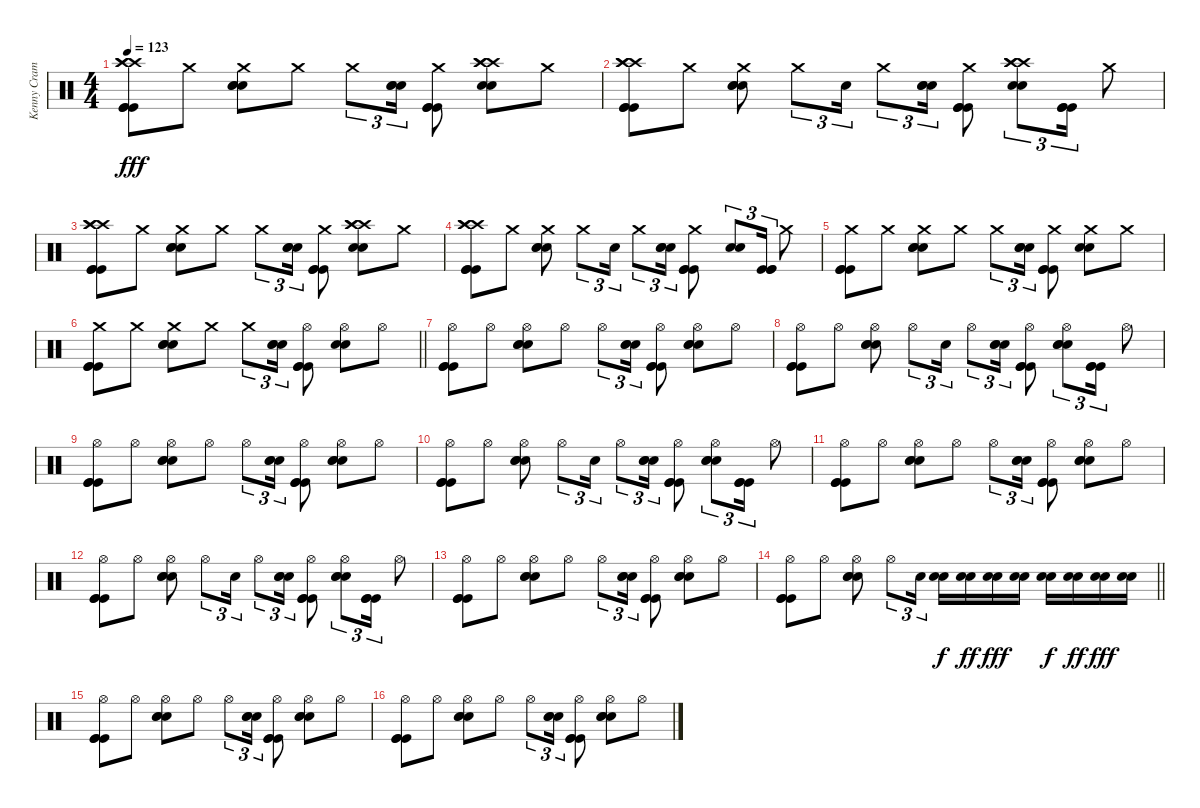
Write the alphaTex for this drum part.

\track ("Kenny Cramme - Drums" "Kenny Cram") {instrument percussion}
\staff {score}
\articulation defaults
\ts (4 4)
\tempo 123
\clef neutral
\ks c
("Crash high (hit)" "Crash high (hit)" "Crash high (hit)" "Kick (hit)" "Kick (hit)" "Kick (hit)").8{dy fff} "Crash medium (hit)".8 ("Crash medium (hit)" "Snare (hit) 2" "Snare (hit) 2" "Snare (hit) 2").8 "Crash medium (hit)".8 "Crash medium (hit)".8{tu (3 2)} ("Snare (hit) 2" "Snare (hit) 2" "Snare (hit) 2").16{tu (3 2)} ("Crash medium (hit)" "Kick (hit)" "Kick (hit)" "Kick (hit)").8 ("Crash high (hit)" "Crash high (hit)" "Crash high (hit)" "Snare (hit) 2" "Snare (hit) 2").8 "Crash medium (hit)".8 |
("Crash high (hit)" "Crash high (hit)" "Crash high (hit)" "Kick (hit)" "Kick (hit)" "Kick (hit)").8 "Crash medium (hit)".8 ("Crash medium (hit)" "Snare (hit) 2" "Snare (hit) 2" "Snare (hit) 2").8 "Crash medium (hit)".8{tu (3 2)} "Snare (hit) 2".16{tu (3 2)} "Crash medium (hit)".8{tu (3 2)} ("Snare (hit) 2" "Snare (hit) 2" "Snare (hit) 2").16{tu (3 2)} ("Crash medium (hit)" "Kick (hit)" "Kick (hit)" "Kick (hit)").8 ("Crash high (hit)" "Crash high (hit)" "Crash high (hit)" "Snare (hit) 2" "Snare (hit) 2").8{tu (3 2)} ("Kick (hit)" "Kick (hit)" "Kick (hit)").16{tu (3 2)} "Crash medium (hit)".8 |
("Crash high (hit)" "Crash high (hit)" "Crash high (hit)" "Kick (hit)" "Kick (hit)" "Kick (hit)").8 "Crash medium (hit)".8 ("Crash medium (hit)" "Snare (hit) 2" "Snare (hit) 2" "Snare (hit) 2").8 "Crash medium (hit)".8 "Crash medium (hit)".8{tu (3 2)} ("Snare (hit) 2" "Snare (hit) 2" "Snare (hit) 2").16{tu (3 2)} ("Crash medium (hit)" "Kick (hit)" "Kick (hit)" "Kick (hit)").8 ("Crash high (hit)" "Crash high (hit)" "Crash high (hit)" "Snare (hit) 2" "Snare (hit) 2").8 "Crash medium (hit)".8 |
("Crash high (hit)" "Crash high (hit)" "Crash high (hit)" "Kick (hit)" "Kick (hit)" "Kick (hit)").8 "Crash medium (hit)".8 ("Crash medium (hit)" "Snare (hit) 2" "Snare (hit) 2" "Snare (hit) 2").8 "Crash medium (hit)".8{tu (3 2)} "Snare (hit) 2".16{tu (3 2)} "Crash medium (hit)".8{tu (3 2)} ("Snare (hit) 2" "Snare (hit) 2" "Snare (hit) 2").16{tu (3 2)} ("Crash medium (hit)" "Kick (hit)" "Kick (hit)" "Kick (hit)").8 ("Snare (hit) 2" "Snare (hit) 2").8{tu (3 2)} ("Kick (hit)" "Kick (hit)" "Kick (hit)").16{tu (3 2)} "Crash medium (hit)".8 |
("Crash medium (hit)" "Kick (hit)" "Kick (hit)" "Kick (hit)").8 "Crash medium (hit)".8 ("Crash medium (hit)" "Snare (hit) 2" "Snare (hit) 2" "Snare (hit) 2").8 "Crash medium (hit)".8 "Crash medium (hit)".8{tu (3 2)} ("Snare (hit) 2" "Snare (hit) 2" "Snare (hit) 2").16{tu (3 2)} ("Crash medium (hit)" "Kick (hit)" "Kick (hit)" "Kick (hit)").8 ("Crash medium (hit)" "Snare (hit) 2" "Snare (hit) 2").8 "Crash medium (hit)".8 |
\barLineRight lightlight
("Crash medium (hit)" "Kick (hit)" "Kick (hit)" "Kick (hit)").8 "Crash medium (hit)".8 ("Crash medium (hit)" "Snare (hit) 2" "Snare (hit) 2" "Snare (hit) 2").8 "Crash medium (hit)".8 "Crash medium (hit)".8{tu (3 2)} ("Snare (hit) 2" "Snare (hit) 2" "Snare (hit) 2").16{tu (3 2)} ("Hi-Hat (open)" "Kick (hit)" "Kick (hit)" "Kick (hit)").8 ("Hi-Hat (open)" "Snare (hit) 2" "Snare (hit) 2").8 "Hi-Hat (open)".8 |
("Hi-Hat (open)" "Kick (hit)" "Kick (hit)" "Kick (hit)").8 "Hi-Hat (open)".8 ("Hi-Hat (open)" "Snare (hit) 2" "Snare (hit) 2" "Snare (hit) 2").8 "Hi-Hat (open)".8 "Hi-Hat (open)".8{tu (3 2)} ("Snare (hit) 2" "Snare (hit) 2" "Snare (hit) 2").16{tu (3 2)} ("Hi-Hat (open)" "Kick (hit)" "Kick (hit)" "Kick (hit)").8 ("Hi-Hat (open)" "Snare (hit) 2" "Snare (hit) 2" "Snare (hit) 2").8 "Hi-Hat (open)".8 |
("Hi-Hat (open)" "Kick (hit)" "Kick (hit)" "Kick (hit)").8 "Hi-Hat (open)".8 ("Hi-Hat (open)" "Snare (hit) 2" "Snare (hit) 2" "Snare (hit) 2").8 "Hi-Hat (open)".8{tu (3 2)} "Snare (hit) 2".16{tu (3 2)} "Hi-Hat (open)".8{tu (3 2)} ("Snare (hit) 2" "Snare (hit) 2" "Snare (hit) 2").16{tu (3 2)} ("Hi-Hat (open)" "Kick (hit)" "Kick (hit)" "Kick (hit)").8 ("Hi-Hat (open)" "Snare (hit) 2" "Snare (hit) 2" "Snare (hit) 2").8{tu (3 2)} ("Kick (hit)" "Kick (hit)" "Kick (hit)").16{tu (3 2)} "Hi-Hat (open)".8 |
("Hi-Hat (open)" "Kick (hit)" "Kick (hit)" "Kick (hit)").8 "Hi-Hat (open)".8 ("Hi-Hat (open)" "Snare (hit) 2" "Snare (hit) 2" "Snare (hit) 2").8 "Hi-Hat (open)".8 "Hi-Hat (open)".8{tu (3 2)} ("Snare (hit) 2" "Snare (hit) 2" "Snare (hit) 2").16{tu (3 2)} ("Hi-Hat (open)" "Kick (hit)" "Kick (hit)" "Kick (hit)").8 ("Hi-Hat (open)" "Snare (hit) 2" "Snare (hit) 2" "Snare (hit) 2").8 "Hi-Hat (open)".8 |
("Hi-Hat (open)" "Kick (hit)" "Kick (hit)" "Kick (hit)").8 "Hi-Hat (open)".8 ("Hi-Hat (open)" "Snare (hit) 2" "Snare (hit) 2" "Snare (hit) 2").8 "Hi-Hat (open)".8{tu (3 2)} "Snare (hit) 2".16{tu (3 2)} "Hi-Hat (open)".8{tu (3 2)} ("Snare (hit) 2" "Snare (hit) 2" "Snare (hit) 2").16{tu (3 2)} ("Hi-Hat (open)" "Kick (hit)" "Kick (hit)" "Kick (hit)").8 ("Hi-Hat (open)" "Snare (hit) 2" "Snare (hit) 2" "Snare (hit) 2").8{tu (3 2)} ("Kick (hit)" "Kick (hit)" "Kick (hit)").16{tu (3 2)} "Hi-Hat (open)".8 |
("Hi-Hat (open)" "Kick (hit)" "Kick (hit)" "Kick (hit)").8 "Hi-Hat (open)".8 ("Hi-Hat (open)" "Snare (hit) 2" "Snare (hit) 2" "Snare (hit) 2").8 "Hi-Hat (open)".8 "Hi-Hat (open)".8{tu (3 2)} ("Snare (hit) 2" "Snare (hit) 2" "Snare (hit) 2").16{tu (3 2)} ("Hi-Hat (open)" "Kick (hit)" "Kick (hit)" "Kick (hit)").8 ("Hi-Hat (open)" "Snare (hit) 2" "Snare (hit) 2" "Snare (hit) 2").8 "Hi-Hat (open)".8 |
("Hi-Hat (open)" "Kick (hit)" "Kick (hit)" "Kick (hit)").8 "Hi-Hat (open)".8 ("Hi-Hat (open)" "Snare (hit) 2" "Snare (hit) 2" "Snare (hit) 2").8 "Hi-Hat (open)".8{tu (3 2)} "Snare (hit) 2".16{tu (3 2)} "Hi-Hat (open)".8{tu (3 2)} ("Snare (hit) 2" "Snare (hit) 2" "Snare (hit) 2").16{tu (3 2)} ("Hi-Hat (open)" "Kick (hit)" "Kick (hit)" "Kick (hit)").8 ("Hi-Hat (open)" "Snare (hit) 2" "Snare (hit) 2" "Snare (hit) 2").8{tu (3 2)} ("Kick (hit)" "Kick (hit)" "Kick (hit)").16{tu (3 2)} "Hi-Hat (open)".8 |
("Hi-Hat (open)" "Kick (hit)" "Kick (hit)" "Kick (hit)").8 "Hi-Hat (open)".8 ("Hi-Hat (open)" "Snare (hit) 2" "Snare (hit) 2" "Snare (hit) 2").8 "Hi-Hat (open)".8 "Hi-Hat (open)".8{tu (3 2)} ("Snare (hit) 2" "Snare (hit) 2" "Snare (hit) 2").16{tu (3 2)} ("Hi-Hat (open)" "Kick (hit)" "Kick (hit)" "Kick (hit)").8 ("Hi-Hat (open)" "Snare (hit) 2" "Snare (hit) 2" "Snare (hit) 2").8 "Hi-Hat (open)".8 |
\barLineRight lightlight
("Hi-Hat (open)" "Kick (hit)" "Kick (hit)" "Kick (hit)").8 "Hi-Hat (open)".8 ("Hi-Hat (open)" "Snare (hit) 2" "Snare (hit) 2" "Snare (hit) 2").8 "Hi-Hat (open)".8{tu (3 2)} "Snare (hit) 2".16{tu (3 2)} ("Snare (hit) 2" "Snare (hit) 2").16{dy f} ("Snare (hit) 2" "Snare (hit) 2").16{dy ff} ("Snare (hit) 2" "Snare (hit) 2").16{dy fff} ("Snare (hit) 2" "Snare (hit) 2").16 ("Snare (hit) 2" "Snare (hit) 2").16{dy f} ("Snare (hit) 2" "Snare (hit) 2").16{dy ff} ("Snare (hit) 2" "Snare (hit) 2").16{dy fff} ("Snare (hit) 2" "Snare (hit) 2").16 |
("Hi-Hat (open)" "Kick (hit)" "Kick (hit)" "Kick (hit)").8 "Hi-Hat (open)".8 ("Hi-Hat (open)" "Snare (hit) 2" "Snare (hit) 2" "Snare (hit) 2").8 "Hi-Hat (open)".8 "Hi-Hat (open)".8{tu (3 2)} ("Snare (hit) 2" "Snare (hit) 2" "Snare (hit) 2").16{tu (3 2)} ("Hi-Hat (open)" "Kick (hit)" "Kick (hit)" "Kick (hit)").8 ("Hi-Hat (open)" "Snare (hit) 2" "Snare (hit) 2" "Snare (hit) 2").8 "Hi-Hat (open)".8 |
("Hi-Hat (open)" "Kick (hit)" "Kick (hit)" "Kick (hit)").8 "Hi-Hat (open)".8 ("Hi-Hat (open)" "Snare (hit) 2" "Snare (hit) 2" "Snare (hit) 2").8 "Hi-Hat (open)".8 "Hi-Hat (open)".8{tu (3 2)} ("Snare (hit) 2" "Snare (hit) 2" "Snare (hit) 2").16{tu (3 2)} ("Hi-Hat (open)" "Kick (hit)" "Kick (hit)" "Kick (hit)").8 ("Hi-Hat (open)" "Snare (hit) 2" "Snare (hit) 2" "Snare (hit) 2").8 "Hi-Hat (open)".8
